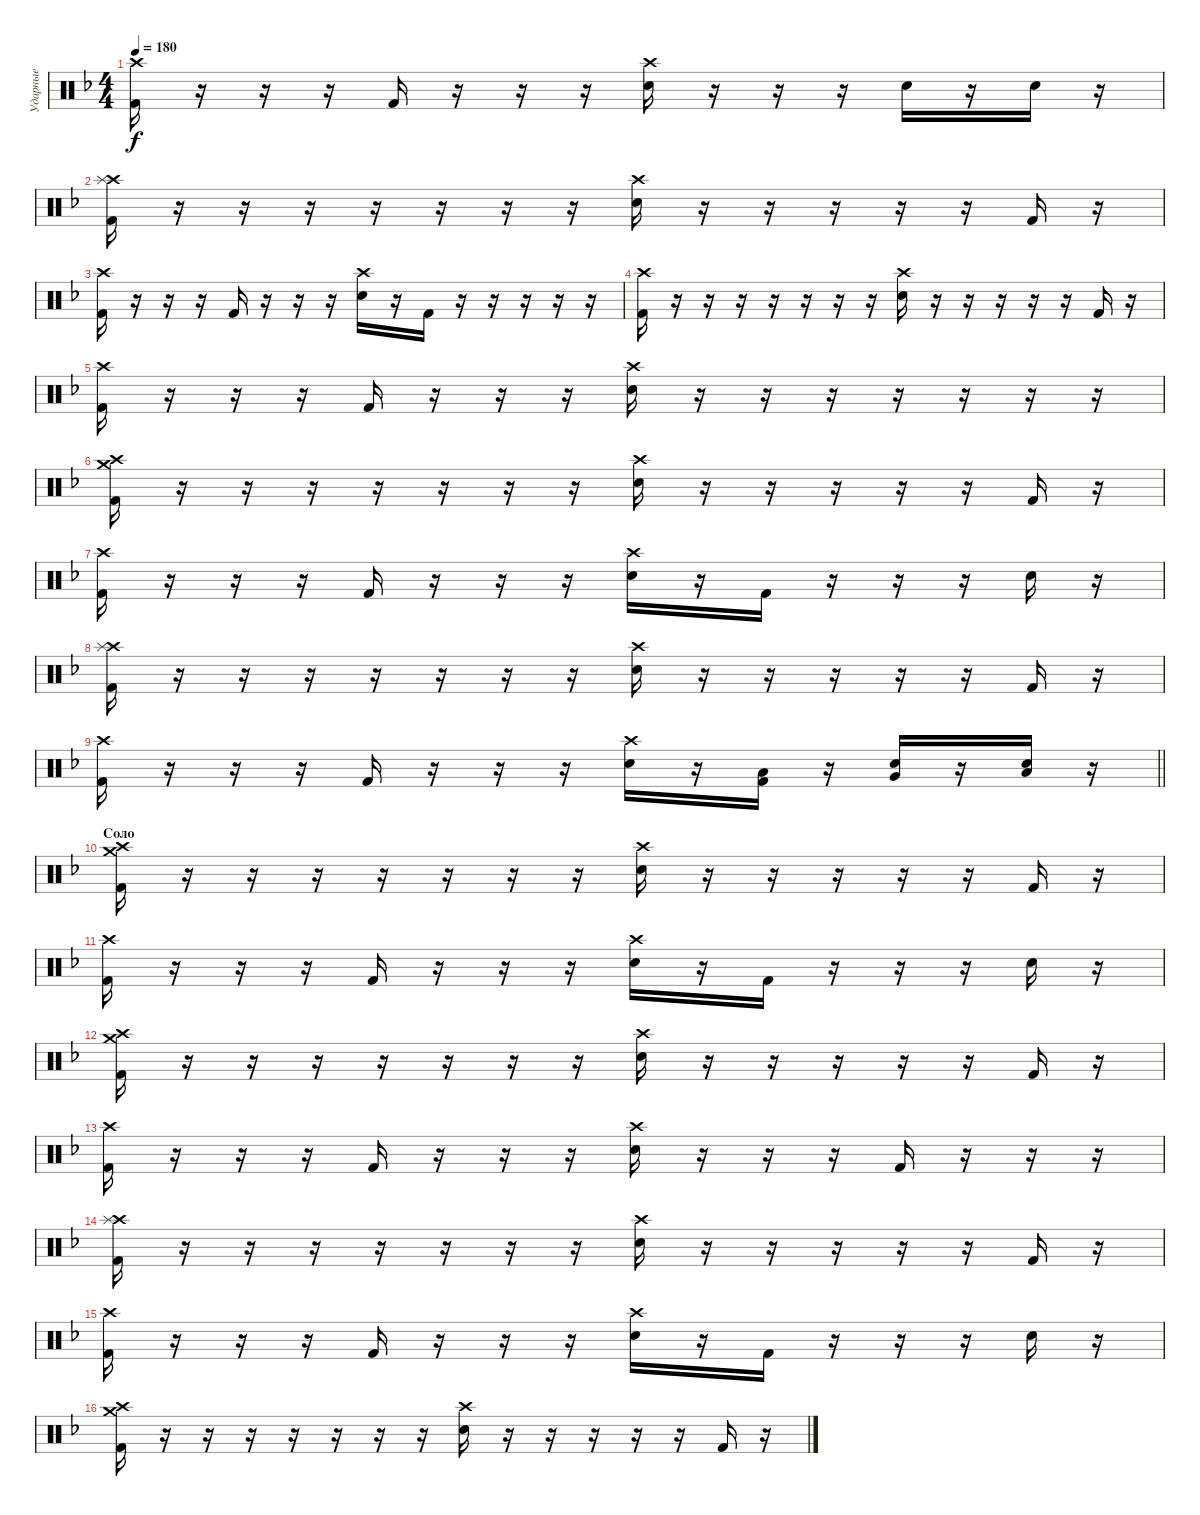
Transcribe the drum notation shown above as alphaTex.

\track ("Ударные" "Ударные") {instrument percussion}
\staff {score}
\articulation defaults
\ts (4 4)
\tempo 180
\clef neutral
\ks dminor
("Crash high (hit)" "Kick (hit) 2").16{dy f} r.16 r.16 r.16 "Kick (hit) 2".16 r.16 r.16 r.16 ("Crash high (hit)" "Electric Snare (hit)").16 r.16 r.16 r.16 "Electric Snare (hit)".16 r.16 "Electric Snare (hit)".16 r.16 |
("Crash high (hit)" "Splash (hit)" "Kick (hit) 2").16 r.16 r.16 r.16 r.16 r.16 r.16 r.16 ("Crash high (hit)" "Electric Snare (hit)").16 r.16 r.16 r.16 r.16 r.16 "Kick (hit) 2".16 r.16 |
("Crash high (hit)" "Kick (hit) 2").16 r.16 r.16 r.16 "Kick (hit) 2".16 r.16 r.16 r.16 ("Crash high (hit)" "Electric Snare (hit)").16 r.16 "Kick (hit) 2".16 r.16 r.16 r.16 r.16 r.16 |
("Crash high (hit)" "Kick (hit) 2").16 r.16 r.16 r.16 r.16 r.16 r.16 r.16 ("Crash high (hit)" "Electric Snare (hit)").16 r.16 r.16 r.16 r.16 r.16 "Kick (hit) 2".16 r.16 |
("Crash high (hit)" "Kick (hit) 2").16 r.16 r.16 r.16 "Kick (hit) 2".16 r.16 r.16 r.16 ("Crash high (hit)" "Electric Snare (hit)").16 r.16 r.16 r.16 r.16 r.16 r.16 r.16 |
("Crash high (hit)" "Crash medium (hit)" "Kick (hit) 2").16 r.16 r.16 r.16 r.16 r.16 r.16 r.16 ("Crash high (hit)" "Electric Snare (hit)").16 r.16 r.16 r.16 r.16 r.16 "Kick (hit) 2".16 r.16 |
("Crash high (hit)" "Kick (hit) 2").16 r.16 r.16 r.16 "Kick (hit) 2".16 r.16 r.16 r.16 ("Crash high (hit)" "Electric Snare (hit)").16 r.16 "Kick (hit) 2".16 r.16 r.16 r.16 "Electric Snare (hit)".16 r.16 |
("Crash high (hit)" "Splash (hit)" "Kick (hit) 2").16 r.16 r.16 r.16 r.16 r.16 r.16 r.16 ("Crash high (hit)" "Electric Snare (hit)").16 r.16 r.16 r.16 r.16 r.16 "Kick (hit) 2".16 r.16 |
\barLineRight lightlight
("Crash high (hit)" "Kick (hit) 2").16 r.16 r.16 r.16 "Kick (hit) 2".16 r.16 r.16 r.16 ("Crash high (hit)" "Electric Snare (hit)").16 r.16 ("Low Tom (hit)" "Kick (hit) 2").16 r.16 ("Electric Snare (hit)" "Very Low Tom (hit)").16 r.16 ("Electric Snare (hit)" "Low Floor Tom (hit)").16 r.16 |
\section ("" "Соло")
("Crash high (hit)" "Crash medium (hit)" "Kick (hit) 2").16 r.16 r.16 r.16 r.16 r.16 r.16 r.16 ("Crash high (hit)" "Electric Snare (hit)").16 r.16 r.16 r.16 r.16 r.16 "Kick (hit) 2".16 r.16 |
("Crash high (hit)" "Kick (hit) 2").16 r.16 r.16 r.16 "Kick (hit) 2".16 r.16 r.16 r.16 ("Crash high (hit)" "Electric Snare (hit)").16 r.16 "Kick (hit) 2".16 r.16 r.16 r.16 "Electric Snare (hit)".16 r.16 |
("Crash high (hit)" "Crash medium (hit)" "Kick (hit) 2").16 r.16 r.16 r.16 r.16 r.16 r.16 r.16 ("Crash high (hit)" "Electric Snare (hit)").16 r.16 r.16 r.16 r.16 r.16 "Kick (hit) 2".16 r.16 |
("Crash high (hit)" "Kick (hit) 2").16 r.16 r.16 r.16 "Kick (hit) 2".16 r.16 r.16 r.16 ("Crash high (hit)" "Electric Snare (hit)").16 r.16 r.16 r.16 "Kick (hit) 2".16 r.16 r.16 r.16 |
("Crash high (hit)" "Splash (hit)" "Kick (hit) 2").16 r.16 r.16 r.16 r.16 r.16 r.16 r.16 ("Crash high (hit)" "Electric Snare (hit)").16 r.16 r.16 r.16 r.16 r.16 "Kick (hit) 2".16 r.16 |
("Crash high (hit)" "Kick (hit) 2").16 r.16 r.16 r.16 "Kick (hit) 2".16 r.16 r.16 r.16 ("Crash high (hit)" "Electric Snare (hit)").16 r.16 "Kick (hit) 2".16 r.16 r.16 r.16 "Electric Snare (hit)".16 r.16 |
("Crash high (hit)" "Crash medium (hit)" "Kick (hit) 2").16 r.16 r.16 r.16 r.16 r.16 r.16 r.16 ("Crash high (hit)" "Electric Snare (hit)").16 r.16 r.16 r.16 r.16 r.16 "Kick (hit) 2".16 r.16
